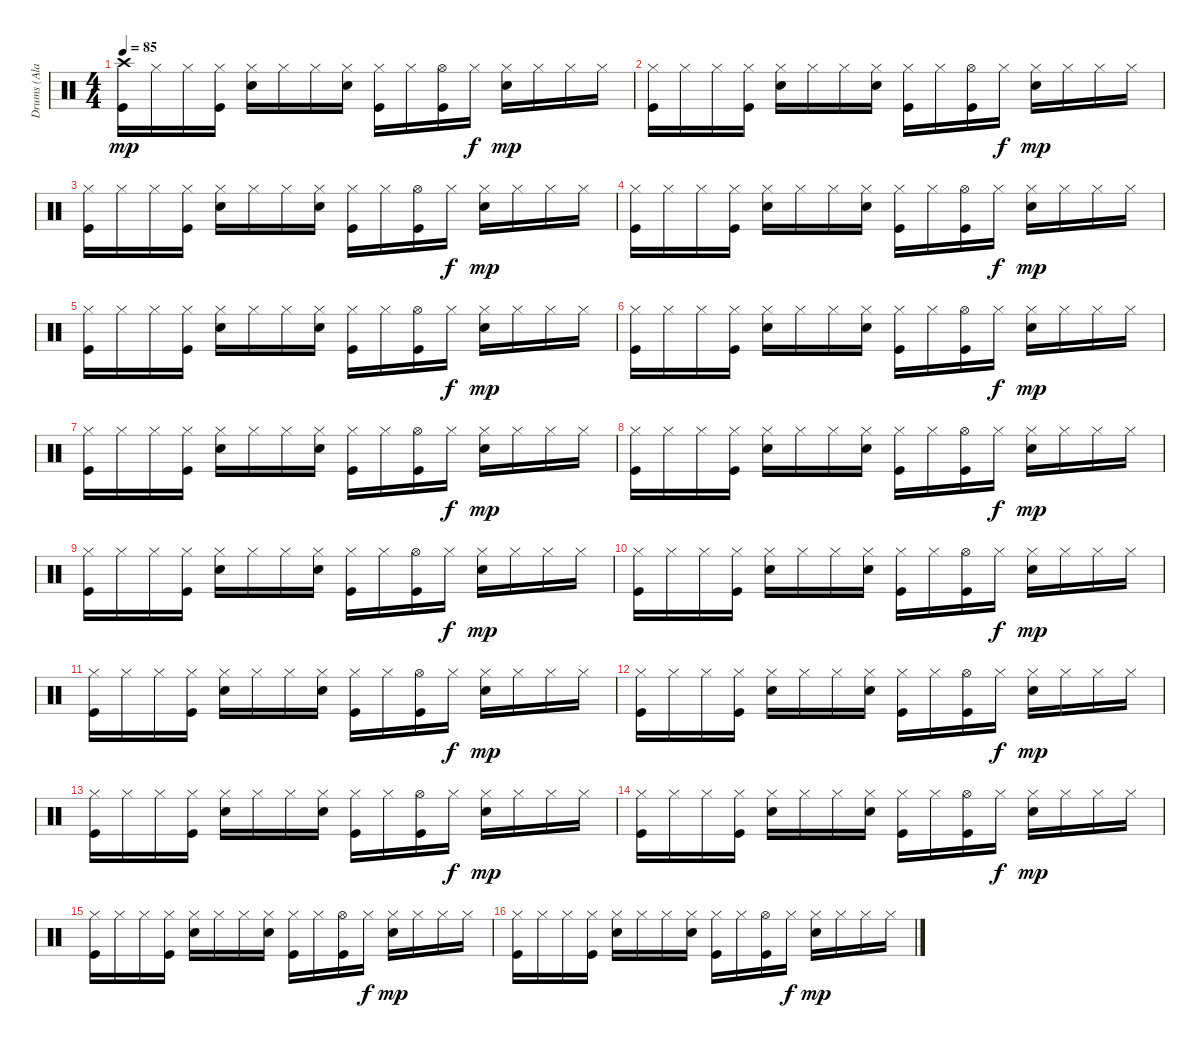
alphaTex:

\track ("Drums (Alan White)" "Drums (Ala") {instrument percussion}
\staff {score}
\articulation defaults
\ts (4 4)
\tempo 85
\clef neutral
\ks c
("Crash high (hit)" "Kick (hit)").16{dy mp} "Hi-Hat (closed)".16 "Hi-Hat (closed)".16 ("Hi-Hat (closed)" "Kick (hit)").16 ("Hi-Hat (closed)" "Snare (hit) 2").16 "Hi-Hat (closed)".16 "Hi-Hat (closed)".16 ("Hi-Hat (closed)" "Snare (hit) 2").16 ("Hi-Hat (closed)" "Kick (hit)").16 "Hi-Hat (closed)".16 ("Hi-Hat (open)" "Kick (hit)").16 "Hi-Hat (closed)".16{dy f} ("Hi-Hat (closed)" "Snare (hit) 2").16{dy mp} "Hi-Hat (closed)".16 "Hi-Hat (closed)".16 "Hi-Hat (closed)".16 |
("Hi-Hat (closed)" "Kick (hit)").16 "Hi-Hat (closed)".16 "Hi-Hat (closed)".16 ("Hi-Hat (closed)" "Kick (hit)").16 ("Hi-Hat (closed)" "Snare (hit) 2").16 "Hi-Hat (closed)".16 "Hi-Hat (closed)".16 ("Hi-Hat (closed)" "Snare (hit) 2").16 ("Hi-Hat (closed)" "Kick (hit)").16 "Hi-Hat (closed)".16 ("Hi-Hat (open)" "Kick (hit)").16 "Hi-Hat (closed)".16{dy f} ("Hi-Hat (closed)" "Snare (hit) 2").16{dy mp} "Hi-Hat (closed)".16 "Hi-Hat (closed)".16 "Hi-Hat (closed)".16 |
("Hi-Hat (closed)" "Kick (hit)").16 "Hi-Hat (closed)".16 "Hi-Hat (closed)".16 ("Hi-Hat (closed)" "Kick (hit)").16 ("Hi-Hat (closed)" "Snare (hit) 2").16 "Hi-Hat (closed)".16 "Hi-Hat (closed)".16 ("Hi-Hat (closed)" "Snare (hit) 2").16 ("Hi-Hat (closed)" "Kick (hit)").16 "Hi-Hat (closed)".16 ("Hi-Hat (open)" "Kick (hit)").16 "Hi-Hat (closed)".16{dy f} ("Hi-Hat (closed)" "Snare (hit) 2").16{dy mp} "Hi-Hat (closed)".16 "Hi-Hat (closed)".16 "Hi-Hat (closed)".16 |
("Hi-Hat (closed)" "Kick (hit)").16 "Hi-Hat (closed)".16 "Hi-Hat (closed)".16 ("Hi-Hat (closed)" "Kick (hit)").16 ("Hi-Hat (closed)" "Snare (hit) 2").16 "Hi-Hat (closed)".16 "Hi-Hat (closed)".16 ("Hi-Hat (closed)" "Snare (hit) 2").16 ("Hi-Hat (closed)" "Kick (hit)").16 "Hi-Hat (closed)".16 ("Hi-Hat (open)" "Kick (hit)").16 "Hi-Hat (closed)".16{dy f} ("Hi-Hat (closed)" "Snare (hit) 2").16{dy mp} "Hi-Hat (closed)".16 "Hi-Hat (closed)".16 "Hi-Hat (closed)".16 |
("Hi-Hat (closed)" "Kick (hit)").16 "Hi-Hat (closed)".16 "Hi-Hat (closed)".16 ("Hi-Hat (closed)" "Kick (hit)").16 ("Hi-Hat (closed)" "Snare (hit) 2").16 "Hi-Hat (closed)".16 "Hi-Hat (closed)".16 ("Hi-Hat (closed)" "Snare (hit) 2").16 ("Hi-Hat (closed)" "Kick (hit)").16 "Hi-Hat (closed)".16 ("Hi-Hat (open)" "Kick (hit)").16 "Hi-Hat (closed)".16{dy f} ("Hi-Hat (closed)" "Snare (hit) 2").16{dy mp} "Hi-Hat (closed)".16 "Hi-Hat (closed)".16 "Hi-Hat (closed)".16 |
("Hi-Hat (closed)" "Kick (hit)").16 "Hi-Hat (closed)".16 "Hi-Hat (closed)".16 ("Hi-Hat (closed)" "Kick (hit)").16 ("Hi-Hat (closed)" "Snare (hit) 2").16 "Hi-Hat (closed)".16 "Hi-Hat (closed)".16 ("Hi-Hat (closed)" "Snare (hit) 2").16 ("Hi-Hat (closed)" "Kick (hit)").16 "Hi-Hat (closed)".16 ("Hi-Hat (open)" "Kick (hit)").16 "Hi-Hat (closed)".16{dy f} ("Hi-Hat (closed)" "Snare (hit) 2").16{dy mp} "Hi-Hat (closed)".16 "Hi-Hat (closed)".16 "Hi-Hat (closed)".16 |
("Hi-Hat (closed)" "Kick (hit)").16 "Hi-Hat (closed)".16 "Hi-Hat (closed)".16 ("Hi-Hat (closed)" "Kick (hit)").16 ("Hi-Hat (closed)" "Snare (hit) 2").16 "Hi-Hat (closed)".16 "Hi-Hat (closed)".16 ("Hi-Hat (closed)" "Snare (hit) 2").16 ("Hi-Hat (closed)" "Kick (hit)").16 "Hi-Hat (closed)".16 ("Hi-Hat (open)" "Kick (hit)").16 "Hi-Hat (closed)".16{dy f} ("Hi-Hat (closed)" "Snare (hit) 2").16{dy mp} "Hi-Hat (closed)".16 "Hi-Hat (closed)".16 "Hi-Hat (closed)".16 |
("Hi-Hat (closed)" "Kick (hit)").16 "Hi-Hat (closed)".16 "Hi-Hat (closed)".16 ("Hi-Hat (closed)" "Kick (hit)").16 ("Hi-Hat (closed)" "Snare (hit) 2").16 "Hi-Hat (closed)".16 "Hi-Hat (closed)".16 ("Hi-Hat (closed)" "Snare (hit) 2").16 ("Hi-Hat (closed)" "Kick (hit)").16 "Hi-Hat (closed)".16 ("Hi-Hat (open)" "Kick (hit)").16 "Hi-Hat (closed)".16{dy f} ("Hi-Hat (closed)" "Snare (hit) 2").16{dy mp} "Hi-Hat (closed)".16 "Hi-Hat (closed)".16 "Hi-Hat (closed)".16 |
("Hi-Hat (closed)" "Kick (hit)").16 "Hi-Hat (closed)".16 "Hi-Hat (closed)".16 ("Hi-Hat (closed)" "Kick (hit)").16 ("Hi-Hat (closed)" "Snare (hit) 2").16 "Hi-Hat (closed)".16 "Hi-Hat (closed)".16 ("Hi-Hat (closed)" "Snare (hit) 2").16 ("Hi-Hat (closed)" "Kick (hit)").16 "Hi-Hat (closed)".16 ("Hi-Hat (open)" "Kick (hit)").16 "Hi-Hat (closed)".16{dy f} ("Hi-Hat (closed)" "Snare (hit) 2").16{dy mp} "Hi-Hat (closed)".16 "Hi-Hat (closed)".16 "Hi-Hat (closed)".16 |
("Hi-Hat (closed)" "Kick (hit)").16 "Hi-Hat (closed)".16 "Hi-Hat (closed)".16 ("Hi-Hat (closed)" "Kick (hit)").16 ("Hi-Hat (closed)" "Snare (hit) 2").16 "Hi-Hat (closed)".16 "Hi-Hat (closed)".16 ("Hi-Hat (closed)" "Snare (hit) 2").16 ("Hi-Hat (closed)" "Kick (hit)").16 "Hi-Hat (closed)".16 ("Hi-Hat (open)" "Kick (hit)").16 "Hi-Hat (closed)".16{dy f} ("Hi-Hat (closed)" "Snare (hit) 2").16{dy mp} "Hi-Hat (closed)".16 "Hi-Hat (closed)".16 "Hi-Hat (closed)".16 |
("Hi-Hat (closed)" "Kick (hit)").16 "Hi-Hat (closed)".16 "Hi-Hat (closed)".16 ("Hi-Hat (closed)" "Kick (hit)").16 ("Hi-Hat (closed)" "Snare (hit) 2").16 "Hi-Hat (closed)".16 "Hi-Hat (closed)".16 ("Hi-Hat (closed)" "Snare (hit) 2").16 ("Hi-Hat (closed)" "Kick (hit)").16 "Hi-Hat (closed)".16 ("Hi-Hat (open)" "Kick (hit)").16 "Hi-Hat (closed)".16{dy f} ("Hi-Hat (closed)" "Snare (hit) 2").16{dy mp} "Hi-Hat (closed)".16 "Hi-Hat (closed)".16 "Hi-Hat (closed)".16 |
("Hi-Hat (closed)" "Kick (hit)").16 "Hi-Hat (closed)".16 "Hi-Hat (closed)".16 ("Hi-Hat (closed)" "Kick (hit)").16 ("Hi-Hat (closed)" "Snare (hit) 2").16 "Hi-Hat (closed)".16 "Hi-Hat (closed)".16 ("Hi-Hat (closed)" "Snare (hit) 2").16 ("Hi-Hat (closed)" "Kick (hit)").16 "Hi-Hat (closed)".16 ("Hi-Hat (open)" "Kick (hit)").16 "Hi-Hat (closed)".16{dy f} ("Hi-Hat (closed)" "Snare (hit) 2").16{dy mp} "Hi-Hat (closed)".16 "Hi-Hat (closed)".16 "Hi-Hat (closed)".16 |
("Hi-Hat (closed)" "Kick (hit)").16 "Hi-Hat (closed)".16 "Hi-Hat (closed)".16 ("Hi-Hat (closed)" "Kick (hit)").16 ("Hi-Hat (closed)" "Snare (hit) 2").16 "Hi-Hat (closed)".16 "Hi-Hat (closed)".16 ("Hi-Hat (closed)" "Snare (hit) 2").16 ("Hi-Hat (closed)" "Kick (hit)").16 "Hi-Hat (closed)".16 ("Hi-Hat (open)" "Kick (hit)").16 "Hi-Hat (closed)".16{dy f} ("Hi-Hat (closed)" "Snare (hit) 2").16{dy mp} "Hi-Hat (closed)".16 "Hi-Hat (closed)".16 "Hi-Hat (closed)".16 |
("Hi-Hat (closed)" "Kick (hit)").16 "Hi-Hat (closed)".16 "Hi-Hat (closed)".16 ("Hi-Hat (closed)" "Kick (hit)").16 ("Hi-Hat (closed)" "Snare (hit) 2").16 "Hi-Hat (closed)".16 "Hi-Hat (closed)".16 ("Hi-Hat (closed)" "Snare (hit) 2").16 ("Hi-Hat (closed)" "Kick (hit)").16 "Hi-Hat (closed)".16 ("Hi-Hat (open)" "Kick (hit)").16 "Hi-Hat (closed)".16{dy f} ("Hi-Hat (closed)" "Snare (hit) 2").16{dy mp} "Hi-Hat (closed)".16 "Hi-Hat (closed)".16 "Hi-Hat (closed)".16 |
("Hi-Hat (closed)" "Kick (hit)").16 "Hi-Hat (closed)".16 "Hi-Hat (closed)".16 ("Hi-Hat (closed)" "Kick (hit)").16 ("Hi-Hat (closed)" "Snare (hit) 2").16 "Hi-Hat (closed)".16 "Hi-Hat (closed)".16 ("Hi-Hat (closed)" "Snare (hit) 2").16 ("Hi-Hat (closed)" "Kick (hit)").16 "Hi-Hat (closed)".16 ("Hi-Hat (open)" "Kick (hit)").16 "Hi-Hat (closed)".16{dy f} ("Hi-Hat (closed)" "Snare (hit) 2").16{dy mp} "Hi-Hat (closed)".16 "Hi-Hat (closed)".16 "Hi-Hat (closed)".16 |
("Hi-Hat (closed)" "Kick (hit)").16 "Hi-Hat (closed)".16 "Hi-Hat (closed)".16 ("Hi-Hat (closed)" "Kick (hit)").16 ("Hi-Hat (closed)" "Snare (hit) 2").16 "Hi-Hat (closed)".16 "Hi-Hat (closed)".16 ("Hi-Hat (closed)" "Snare (hit) 2").16 ("Hi-Hat (closed)" "Kick (hit)").16 "Hi-Hat (closed)".16 ("Hi-Hat (open)" "Kick (hit)").16 "Hi-Hat (closed)".16{dy f} ("Hi-Hat (closed)" "Snare (hit) 2").16{dy mp} "Hi-Hat (closed)".16 "Hi-Hat (closed)".16 "Hi-Hat (closed)".16
